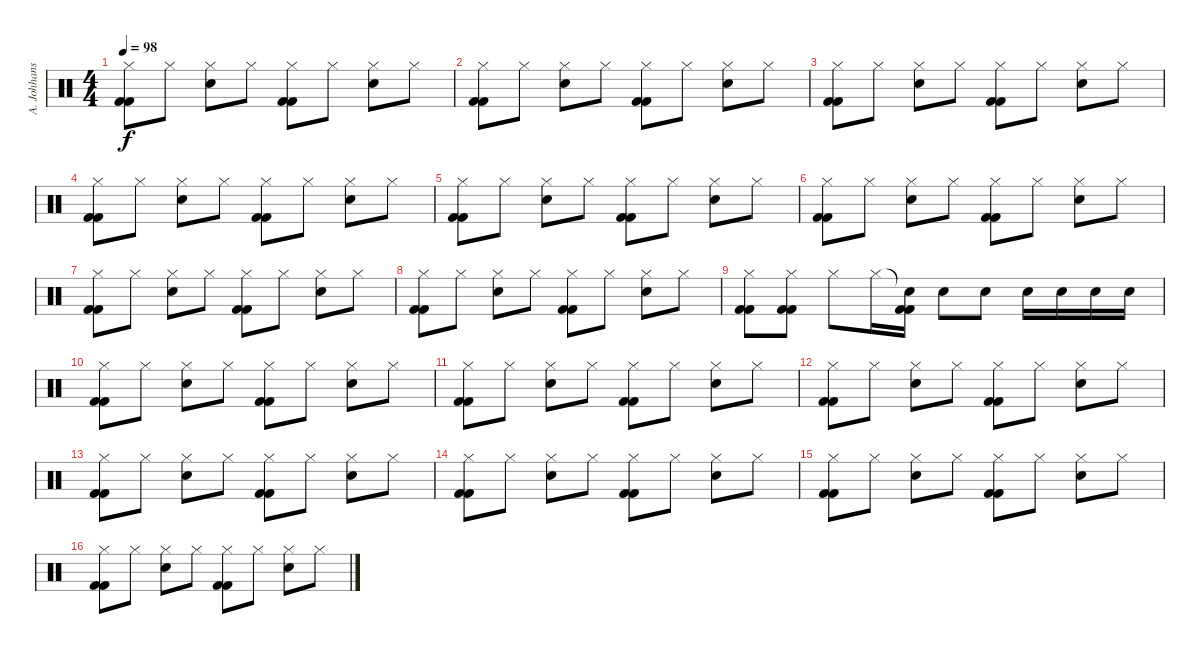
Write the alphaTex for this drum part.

\track ("A. Johhanson" "A. Johhans") {instrument percussion}
\staff {score}
\articulation defaults
\ts (4 4)
\tempo 98
\clef neutral
\ks c
("Hi-Hat (closed)" "Kick (hit) 2" "Kick (hit) 2").8{dy f} "Hi-Hat (closed)".8 ("Hi-Hat (closed)" "Snare (hit) 2").8 "Hi-Hat (closed)".8 ("Hi-Hat (closed)" "Kick (hit) 2" "Kick (hit) 2").8 "Hi-Hat (closed)".8 ("Hi-Hat (closed)" "Snare (hit) 2").8 "Hi-Hat (closed)".8 |
("Hi-Hat (closed)" "Kick (hit) 2" "Kick (hit) 2").8 "Hi-Hat (closed)".8 ("Hi-Hat (closed)" "Snare (hit) 2").8 "Hi-Hat (closed)".8 ("Hi-Hat (closed)" "Kick (hit) 2" "Kick (hit) 2").8 "Hi-Hat (closed)".8 ("Hi-Hat (closed)" "Snare (hit) 2").8 "Hi-Hat (closed)".8 |
("Hi-Hat (closed)" "Kick (hit) 2" "Kick (hit) 2").8 "Hi-Hat (closed)".8 ("Hi-Hat (closed)" "Snare (hit) 2").8 "Hi-Hat (closed)".8 ("Hi-Hat (closed)" "Kick (hit) 2" "Kick (hit) 2").8 "Hi-Hat (closed)".8 ("Hi-Hat (closed)" "Snare (hit) 2").8 "Hi-Hat (closed)".8 |
("Hi-Hat (closed)" "Kick (hit) 2" "Kick (hit) 2").8 "Hi-Hat (closed)".8 ("Hi-Hat (closed)" "Snare (hit) 2").8 "Hi-Hat (closed)".8 ("Hi-Hat (closed)" "Kick (hit) 2" "Kick (hit) 2").8 "Hi-Hat (closed)".8 ("Hi-Hat (closed)" "Snare (hit) 2").8 "Hi-Hat (closed)".8 |
("Hi-Hat (closed)" "Kick (hit) 2" "Kick (hit) 2").8 "Hi-Hat (closed)".8 ("Hi-Hat (closed)" "Snare (hit) 2").8 "Hi-Hat (closed)".8 ("Hi-Hat (closed)" "Kick (hit) 2" "Kick (hit) 2").8 "Hi-Hat (closed)".8 ("Hi-Hat (closed)" "Snare (hit) 2").8 "Hi-Hat (closed)".8 |
("Hi-Hat (closed)" "Kick (hit) 2" "Kick (hit) 2").8 "Hi-Hat (closed)".8 ("Hi-Hat (closed)" "Snare (hit) 2").8 "Hi-Hat (closed)".8 ("Hi-Hat (closed)" "Kick (hit) 2" "Kick (hit) 2").8 "Hi-Hat (closed)".8 ("Hi-Hat (closed)" "Snare (hit) 2").8 "Hi-Hat (closed)".8 |
("Hi-Hat (closed)" "Kick (hit) 2" "Kick (hit) 2").8 "Hi-Hat (closed)".8 ("Hi-Hat (closed)" "Snare (hit) 2").8 "Hi-Hat (closed)".8 ("Hi-Hat (closed)" "Kick (hit) 2" "Kick (hit) 2").8 "Hi-Hat (closed)".8 ("Hi-Hat (closed)" "Snare (hit) 2").8 "Hi-Hat (closed)".8 |
("Hi-Hat (closed)" "Kick (hit) 2" "Kick (hit) 2").8 "Hi-Hat (closed)".8 ("Hi-Hat (closed)" "Snare (hit) 2").8 "Hi-Hat (closed)".8 ("Hi-Hat (closed)" "Kick (hit) 2" "Kick (hit) 2").8 "Hi-Hat (closed)".8 ("Hi-Hat (closed)" "Snare (hit) 2").8 "Hi-Hat (closed)".8 |
("Hi-Hat (closed)" "Kick (hit) 2" "Kick (hit) 2").8 ("Hi-Hat (closed)" "Kick (hit) 2" "Kick (hit) 2").8 "Hi-Hat (closed)".8 "Hi-Hat (closed)".16 ("Snare (hit)"{t} "Kick (hit) 2" "Kick (hit) 2").16 "Snare (hit) 2".8 "Snare (hit) 2".8 "Snare (hit) 2".16 "Snare (hit) 2".16 "Snare (hit) 2".16 "Snare (hit) 2".16 |
("Hi-Hat (closed)" "Kick (hit) 2" "Kick (hit) 2").8 "Hi-Hat (closed)".8 ("Hi-Hat (closed)" "Snare (hit) 2").8 "Hi-Hat (closed)".8 ("Hi-Hat (closed)" "Kick (hit) 2" "Kick (hit) 2").8 "Hi-Hat (closed)".8 ("Hi-Hat (closed)" "Snare (hit) 2").8 "Hi-Hat (closed)".8 |
("Hi-Hat (closed)" "Kick (hit) 2" "Kick (hit) 2").8 "Hi-Hat (closed)".8 ("Hi-Hat (closed)" "Snare (hit) 2").8 "Hi-Hat (closed)".8 ("Hi-Hat (closed)" "Kick (hit) 2" "Kick (hit) 2").8 "Hi-Hat (closed)".8 ("Hi-Hat (closed)" "Snare (hit) 2").8 "Hi-Hat (closed)".8 |
("Hi-Hat (closed)" "Kick (hit) 2" "Kick (hit) 2").8 "Hi-Hat (closed)".8 ("Hi-Hat (closed)" "Snare (hit) 2").8 "Hi-Hat (closed)".8 ("Hi-Hat (closed)" "Kick (hit) 2" "Kick (hit) 2").8 "Hi-Hat (closed)".8 ("Hi-Hat (closed)" "Snare (hit) 2").8 "Hi-Hat (closed)".8 |
("Hi-Hat (closed)" "Kick (hit) 2" "Kick (hit) 2").8 "Hi-Hat (closed)".8 ("Hi-Hat (closed)" "Snare (hit) 2").8 "Hi-Hat (closed)".8 ("Hi-Hat (closed)" "Kick (hit) 2" "Kick (hit) 2").8 "Hi-Hat (closed)".8 ("Hi-Hat (closed)" "Snare (hit) 2").8 "Hi-Hat (closed)".8 |
("Hi-Hat (closed)" "Kick (hit) 2" "Kick (hit) 2").8 "Hi-Hat (closed)".8 ("Hi-Hat (closed)" "Snare (hit) 2").8 "Hi-Hat (closed)".8 ("Hi-Hat (closed)" "Kick (hit) 2" "Kick (hit) 2").8 "Hi-Hat (closed)".8 ("Hi-Hat (closed)" "Snare (hit) 2").8 "Hi-Hat (closed)".8 |
("Hi-Hat (closed)" "Kick (hit) 2" "Kick (hit) 2").8 "Hi-Hat (closed)".8 ("Hi-Hat (closed)" "Snare (hit) 2").8 "Hi-Hat (closed)".8 ("Hi-Hat (closed)" "Kick (hit) 2" "Kick (hit) 2").8 "Hi-Hat (closed)".8 ("Hi-Hat (closed)" "Snare (hit) 2").8 "Hi-Hat (closed)".8 |
("Hi-Hat (closed)" "Kick (hit) 2" "Kick (hit) 2").8 "Hi-Hat (closed)".8 ("Hi-Hat (closed)" "Snare (hit) 2").8 "Hi-Hat (closed)".8 ("Hi-Hat (closed)" "Kick (hit) 2" "Kick (hit) 2").8 "Hi-Hat (closed)".8 ("Hi-Hat (closed)" "Snare (hit) 2").8 "Hi-Hat (closed)".8
